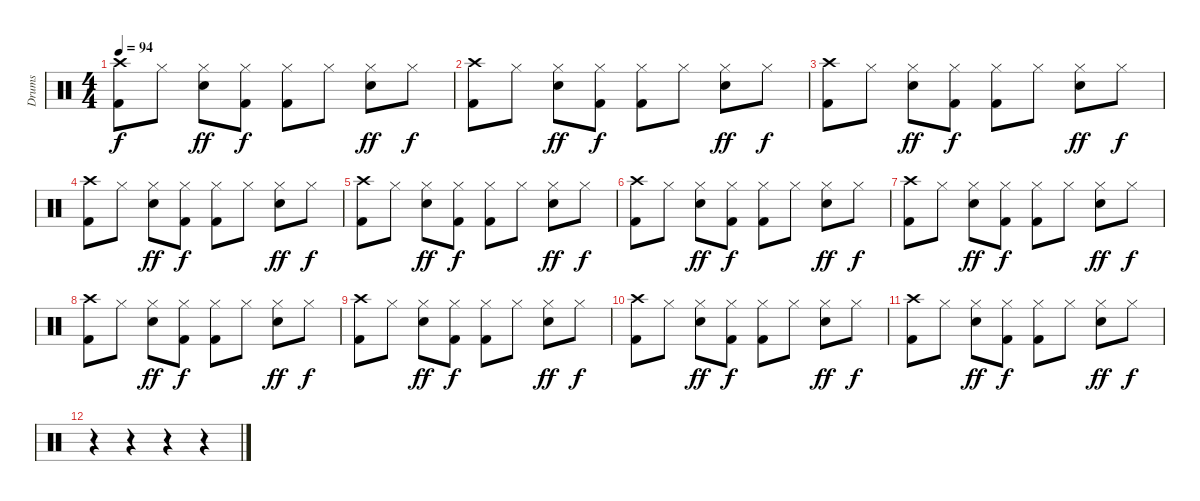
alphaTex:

\track ("Drums" "Drums") {instrument percussion}
\staff {score}
\articulation defaults
\ts (4 4)
\tempo 94
\clef neutral
\ks c
("Crash high (hit)" "Kick (hit) 2").8{dy f} "Hi-Hat (closed)".8 ("Hi-Hat (closed)" "Electric Snare (hit)").8{dy ff} ("Hi-Hat (closed)" "Kick (hit) 2").8{dy f} ("Hi-Hat (closed)" "Kick (hit) 2").8 "Hi-Hat (closed)".8 ("Hi-Hat (closed)" "Electric Snare (hit)").8{dy ff} "Hi-Hat (closed)".8{dy f} |
("Crash high (hit)" "Kick (hit) 2").8 "Hi-Hat (closed)".8 ("Hi-Hat (closed)" "Electric Snare (hit)").8{dy ff} ("Hi-Hat (closed)" "Kick (hit) 2").8{dy f} ("Hi-Hat (closed)" "Kick (hit) 2").8 "Hi-Hat (closed)".8 ("Hi-Hat (closed)" "Electric Snare (hit)").8{dy ff} "Hi-Hat (closed)".8{dy f} |
("Crash high (hit)" "Kick (hit) 2").8 "Hi-Hat (closed)".8 ("Hi-Hat (closed)" "Electric Snare (hit)").8{dy ff} ("Hi-Hat (closed)" "Kick (hit) 2").8{dy f} ("Hi-Hat (closed)" "Kick (hit) 2").8 "Hi-Hat (closed)".8 ("Hi-Hat (closed)" "Electric Snare (hit)").8{dy ff} "Hi-Hat (closed)".8{dy f} |
("Crash high (hit)" "Kick (hit) 2").8 "Hi-Hat (closed)".8 ("Hi-Hat (closed)" "Electric Snare (hit)").8{dy ff} ("Hi-Hat (closed)" "Kick (hit) 2").8{dy f} ("Hi-Hat (closed)" "Kick (hit) 2").8 "Hi-Hat (closed)".8 ("Hi-Hat (closed)" "Electric Snare (hit)").8{dy ff} "Hi-Hat (closed)".8{dy f} |
("Crash high (hit)" "Kick (hit) 2").8 "Hi-Hat (closed)".8 ("Hi-Hat (closed)" "Electric Snare (hit)").8{dy ff} ("Hi-Hat (closed)" "Kick (hit) 2").8{dy f} ("Hi-Hat (closed)" "Kick (hit) 2").8 "Hi-Hat (closed)".8 ("Hi-Hat (closed)" "Electric Snare (hit)").8{dy ff} "Hi-Hat (closed)".8{dy f} |
("Crash high (hit)" "Kick (hit) 2").8 "Hi-Hat (closed)".8 ("Hi-Hat (closed)" "Electric Snare (hit)").8{dy ff} ("Hi-Hat (closed)" "Kick (hit) 2").8{dy f} ("Hi-Hat (closed)" "Kick (hit) 2").8 "Hi-Hat (closed)".8 ("Hi-Hat (closed)" "Electric Snare (hit)").8{dy ff} "Hi-Hat (closed)".8{dy f} |
("Crash high (hit)" "Kick (hit) 2").8 "Hi-Hat (closed)".8 ("Hi-Hat (closed)" "Electric Snare (hit)").8{dy ff} ("Hi-Hat (closed)" "Kick (hit) 2").8{dy f} ("Hi-Hat (closed)" "Kick (hit) 2").8 "Hi-Hat (closed)".8 ("Hi-Hat (closed)" "Electric Snare (hit)").8{dy ff} "Hi-Hat (closed)".8{dy f} |
("Crash high (hit)" "Kick (hit) 2").8 "Hi-Hat (closed)".8 ("Hi-Hat (closed)" "Electric Snare (hit)").8{dy ff} ("Hi-Hat (closed)" "Kick (hit) 2").8{dy f} ("Hi-Hat (closed)" "Kick (hit) 2").8 "Hi-Hat (closed)".8 ("Hi-Hat (closed)" "Electric Snare (hit)").8{dy ff} "Hi-Hat (closed)".8{dy f} |
("Crash high (hit)" "Kick (hit) 2").8 "Hi-Hat (closed)".8 ("Hi-Hat (closed)" "Electric Snare (hit)").8{dy ff} ("Hi-Hat (closed)" "Kick (hit) 2").8{dy f} ("Hi-Hat (closed)" "Kick (hit) 2").8 "Hi-Hat (closed)".8 ("Hi-Hat (closed)" "Electric Snare (hit)").8{dy ff} "Hi-Hat (closed)".8{dy f} |
("Crash high (hit)" "Kick (hit) 2").8 "Hi-Hat (closed)".8 ("Hi-Hat (closed)" "Electric Snare (hit)").8{dy ff} ("Hi-Hat (closed)" "Kick (hit) 2").8{dy f} ("Hi-Hat (closed)" "Kick (hit) 2").8 "Hi-Hat (closed)".8 ("Hi-Hat (closed)" "Electric Snare (hit)").8{dy ff} "Hi-Hat (closed)".8{dy f} |
("Crash high (hit)" "Kick (hit) 2").8 "Hi-Hat (closed)".8 ("Hi-Hat (closed)" "Electric Snare (hit)").8{dy ff} ("Hi-Hat (closed)" "Kick (hit) 2").8{dy f} ("Hi-Hat (closed)" "Kick (hit) 2").8 "Hi-Hat (closed)".8 ("Hi-Hat (closed)" "Electric Snare (hit)").8{dy ff} "Hi-Hat (closed)".8{dy f} |
r.4 r.4 r.4 r.4
